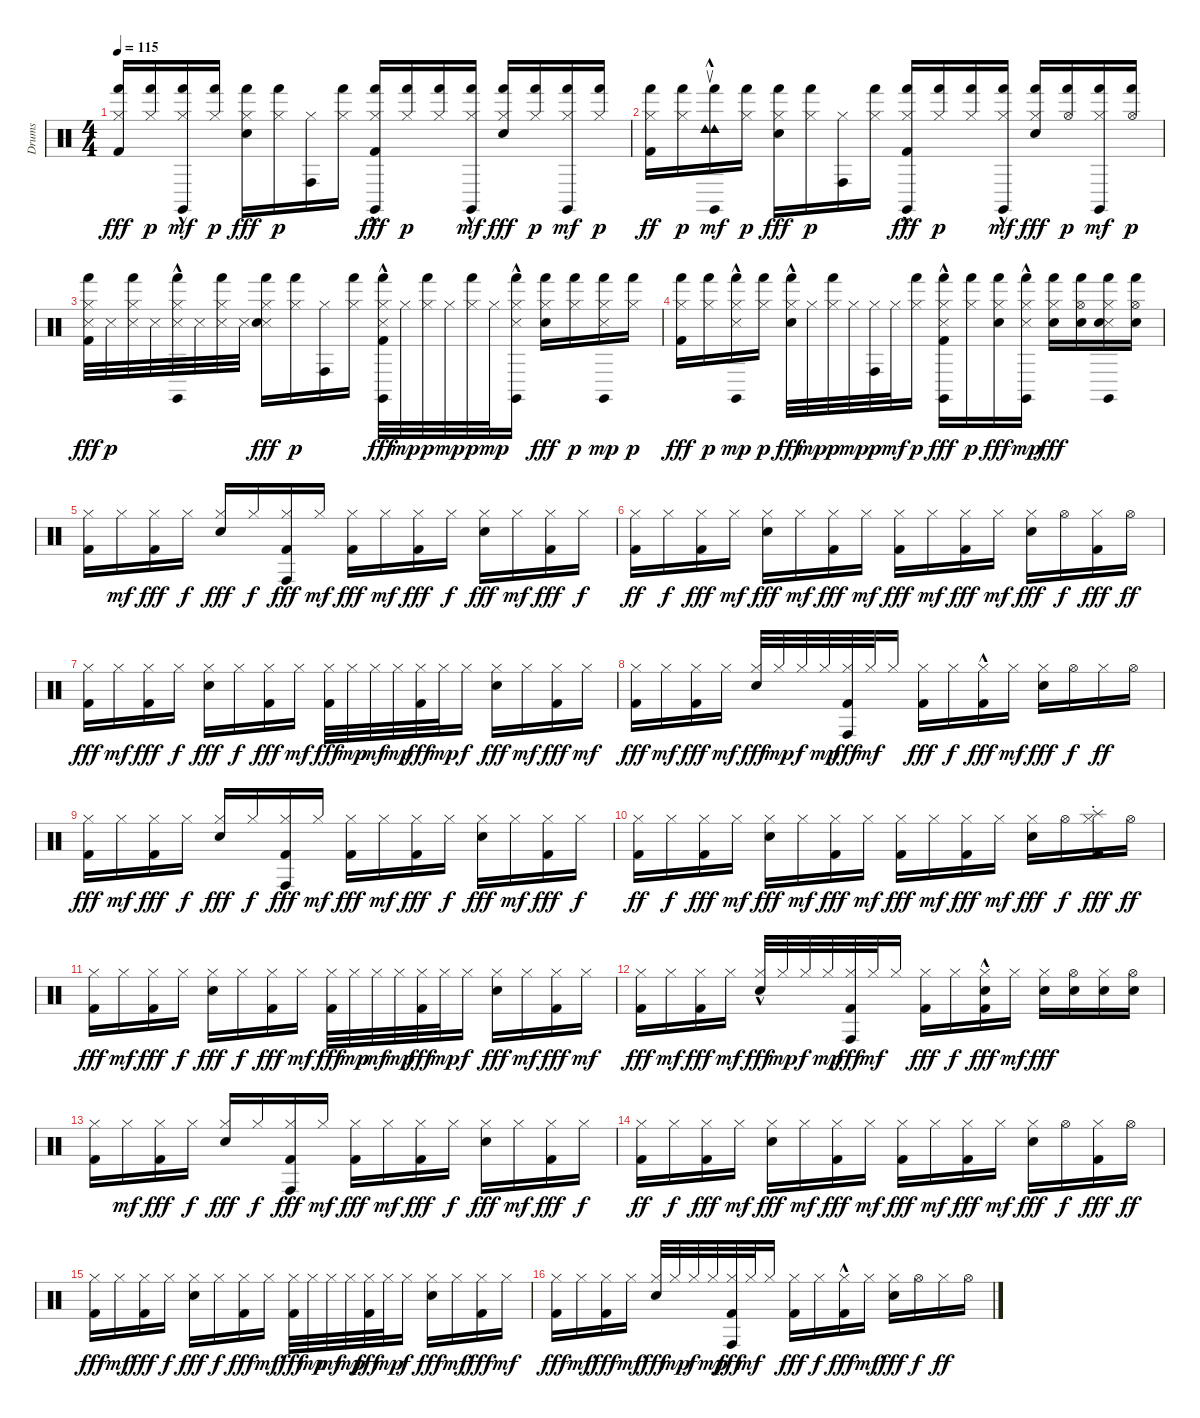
\track ("Drums" "Drums") {instrument percussion}
\staff {score}
\articulation defaults
\ts (4 4)
\tempo 115
\clef neutral
\ks c
("Hi-Hat (closed)" "Hand (hit)" "Kick (hit) 2").16{dy fff} ("Hi-Hat (closed)" "Hand (hit)").16{dy p} ("Hi-Hat (closed)" "Hand (hit)" "Claves (hit)"{hac}).16{dy mf} ("Hi-Hat (closed)" "Hand (hit)").16{dy p} ("Hi-Hat (closed)" "Hand (hit)" "Snare (hit) 2").16{dy fff} ("Hi-Hat (closed)" "Hand (hit)").16{dy p} ("Hi-Hat (closed)" "Conga high (hit)").16 ("Hi-Hat (closed)" "Hand (hit)").16 ("Hi-Hat (closed)" "Hand (hit)" "Claves (hit)"{hac} "Kick (hit) 2").16{dy fff} ("Hi-Hat (closed)" "Hand (hit)").16{dy p} ("Hi-Hat (closed)" "Hand (hit)").16 ("Hi-Hat (closed)" "Hand (hit)" "Claves (hit)"{hac}).16{dy mf} ("Hi-Hat (closed)" "Hand (hit)" "Snare (hit) 2").16{dy fff} ("Hi-Hat (closed)" "Hand (hit)").16{dy p} ("Hi-Hat (closed)" "Hand (hit)" "Claves (hit)").16{dy mf} ("Hi-Hat (closed)" "Hand (hit)").16{dy p} |
("Hi-Hat (closed)" "Hand (hit)" "Kick (hit) 2").16{dy ff} ("Hi-Hat (closed)" "Hand (hit)").16{dy p} ("Tambourine (return)" "Tambourine (return)" "Hand (hit)" "Claves (hit)"{hac}).16{dy mf} ("Hi-Hat (closed)" "Hand (hit)").16{dy p} ("Hi-Hat (closed)" "Hand (hit)" "Snare (hit) 2").16{dy fff} ("Hi-Hat (closed)" "Hand (hit)").16{dy p} ("Hi-Hat (closed)" "Conga high (hit)").16 ("Hi-Hat (closed)" "Hand (hit)").16 ("Hi-Hat (closed)" "Hand (hit)" "Claves (hit)"{hac} "Kick (hit) 2").16{dy fff} ("Hi-Hat (closed)" "Hand (hit)").16{dy p} ("Hi-Hat (closed)" "Hand (hit)").16 ("Hi-Hat (closed)" "Hand (hit)" "Claves (hit)"{hac}).16{dy mf} ("Hi-Hat (closed)" "Hand (hit)" "Snare (hit) 2").16{dy fff} ("Hi-Hat (open)" "Hand (hit)").16{dy p} ("Hi-Hat (closed)" "Hand (hit)" "Claves (hit)").16{dy mf} ("Hi-Hat (open)" "Hand (hit)").16{dy p} |
("Hi-Hat (closed)" "Hand (hit)" "Snare (side stick) 3" "Kick (hit) 2").32{dy fff} "Snare (side stick) 3".32{dy p} ("Hi-Hat (closed)" "Hand (hit)" "Snare (side stick) 3").32 "Snare (side stick) 3".32 ("Hi-Hat (closed)" "Hand (hit)" "Claves (hit)"{hac} "Snare (side stick) 3").32 "Snare (side stick) 3".32 ("Hi-Hat (closed)" "Hand (hit)" "Snare (side stick) 3").32 "Snare (side stick) 3".32 ("Hi-Hat (closed)" "Hand (hit)" "Snare (side stick) 3" "Snare (hit) 2").16{dy fff} ("Hi-Hat (closed)" "Hand (hit)").16{dy p} ("Hi-Hat (closed)" "Conga high (hit)").16 ("Hi-Hat (closed)" "Hand (hit)").16 ("Hi-Hat (closed)" "Hand (hit)" "Claves (hit)"{hac} "Snare (side stick) 3"{hac} "Kick (hit) 2").32{dy fff} "Hi-Hat (closed)".32{dy mp} ("Hi-Hat (closed)" "Hand (hit)").32{dy p} "Hi-Hat (closed)".32{dy mp} ("Hi-Hat (closed)" "Hand (hit)").32{dy p} "Hi-Hat (closed)".32{dy mp} ("Hi-Hat (closed)" "Hand (hit)" "Claves (hit)"{hac} "Snare (side stick) 3"{hac}).16 ("Hi-Hat (closed)" "Hand (hit)" "Snare (hit) 2").16{dy fff} ("Hi-Hat (closed)" "Hand (hit)").16{dy p} ("Hi-Hat (closed)" "Hand (hit)" "Claves (hit)" "Snare (side stick) 3").16{dy mp} ("Hi-Hat (closed)" "Hand (hit)").16{dy p} |
("Hi-Hat (closed)" "Hand (hit)" "Kick (hit) 2").16{dy fff} ("Hi-Hat (closed)" "Hand (hit)").16{dy p} ("Hi-Hat (closed)" "Hand (hit)" "Claves (hit)"{hac} "Snare (side stick) 3"{hac}).16{dy mp} ("Hi-Hat (closed)" "Hand (hit)").16{dy p} ("Hi-Hat (closed)" "Hand (hit)" "Snare (hit) 2"{hac}).32{dy fff} "Hi-Hat (closed)".32{dy mp} ("Hi-Hat (closed)" "Hand (hit)").32{dy p} "Hi-Hat (closed)".32{dy mp} ("Hi-Hat (closed)" "Conga high (hit)").32{dy p} "Hi-Hat (closed)".32{dy mf} ("Hi-Hat (closed)" "Hand (hit)").16{dy p} ("Hi-Hat (closed)" "Hand (hit)" "Claves (hit)"{hac} "Snare (side stick) 3"{hac} "Kick (hit) 2").16{dy fff} ("Hi-Hat (closed)" "Hand (hit)").16{dy p} ("Hi-Hat (closed)" "Hand (hit)" "Snare (hit) 2").16{dy fff} ("Hi-Hat (closed)" "Hand (hit)" "Claves (hit)"{hac} "Snare (side stick) 3"{hac}).16{dy mp} ("Hi-Hat (closed)" "Hand (hit)" "Snare (hit) 2").16{dy fff} ("Hi-Hat (open)" "Hand (hit)" "Snare (hit) 2").16 ("Hi-Hat (closed)" "Hand (hit)" "Claves (hit)" "Snare (side stick) 3" "Snare (hit) 2").16 ("Hi-Hat (open)" "Hand (hit)" "Snare (hit) 2").16 |
("Hi-Hat (closed)" "Kick (hit) 2").16 "Hi-Hat (closed)".16{dy mf} ("Hi-Hat (closed)" "Kick (hit) 2").16{dy fff} "Hi-Hat (closed)".16{dy f} ("Hi-Hat (closed)" "Snare (hit) 2").16{dy fff} "Hi-Hat (closed)".16{dy f} ("Hi-Hat (closed)" "Conga high (hit)" "Kick (hit) 2").16{dy fff} "Hi-Hat (closed)".16{dy mf} ("Hi-Hat (closed)" "Kick (hit) 2").16{dy fff} "Hi-Hat (closed)".16{dy mf} ("Hi-Hat (closed)" "Kick (hit) 2").16{dy fff} "Hi-Hat (closed)".16{dy f} ("Hi-Hat (closed)" "Snare (hit) 2").16{dy fff} "Hi-Hat (closed)".16{dy mf} ("Hi-Hat (closed)" "Kick (hit) 2").16{dy fff} "Hi-Hat (closed)".16{dy f} |
("Hi-Hat (closed)" "Kick (hit) 2").16{dy ff} "Hi-Hat (closed)".16{dy f} ("Hi-Hat (closed)" "Kick (hit) 2").16{dy fff} "Hi-Hat (closed)".16{dy mf} ("Hi-Hat (closed)" "Snare (hit) 2").16{dy fff} "Hi-Hat (closed)".16{dy mf} ("Hi-Hat (closed)" "Kick (hit) 2").16{dy fff} "Hi-Hat (closed)".16{dy mf} ("Hi-Hat (closed)" "Kick (hit) 2").16{dy fff} "Hi-Hat (closed)".16{dy mf} ("Hi-Hat (closed)" "Kick (hit) 2").16{dy fff} "Hi-Hat (closed)".16{dy mf} ("Hi-Hat (closed)" "Snare (hit) 2").16{dy fff} "Hi-Hat (open)".16{dy f} ("Hi-Hat (closed)" "Kick (hit) 2").16{dy fff} "Hi-Hat (open)".16{dy ff} |
("Hi-Hat (closed)" "Kick (hit) 2").16{dy fff} "Hi-Hat (closed)".16{dy mf} ("Hi-Hat (closed)" "Kick (hit) 2").16{dy fff} "Hi-Hat (closed)".16{dy f} ("Hi-Hat (closed)" "Snare (hit) 2").16{dy fff} "Hi-Hat (closed)".16{dy f} ("Hi-Hat (closed)" "Kick (hit) 2").16{dy fff} "Hi-Hat (closed)".16{dy mf} ("Hi-Hat (closed)" "Kick (hit) 2").32{dy fff} "Hi-Hat (closed)".32{dy mp} "Hi-Hat (closed)".32{dy mf} "Hi-Hat (closed)".32{dy mp} ("Hi-Hat (closed)" "Kick (hit) 2").32{dy fff} "Hi-Hat (closed)".32{dy mp} "Hi-Hat (closed)".16{dy f} ("Hi-Hat (closed)" "Snare (hit) 2").16{dy fff} "Hi-Hat (closed)".16{dy mf} ("Hi-Hat (closed)" "Kick (hit) 2").16{dy fff} "Hi-Hat (closed)".16{dy mf} |
("Hi-Hat (closed)" "Kick (hit) 2").16{dy fff} "Hi-Hat (closed)".16{dy mf} ("Hi-Hat (closed)" "Kick (hit) 2").16{dy fff} "Hi-Hat (closed)".16{dy mf} ("Hi-Hat (closed)" "Snare (hit) 2").32{dy fff} "Hi-Hat (closed)".32{dy mp} "Hi-Hat (closed)".32{dy f} "Hi-Hat (closed)".32{dy mp} ("Hi-Hat (closed)" "Conga high (hit)" "Kick (hit) 2").32{dy fff} "Hi-Hat (closed)".32{dy mf} "Hi-Hat (closed)".16 ("Hi-Hat (closed)" "Kick (hit) 2").16{dy fff} "Hi-Hat (closed)".16{dy f} ("Hi-Hat (closed)" "Kick (hit) 2"{hac}).16{dy fff} "Hi-Hat (closed)".16{dy mf} ("Hi-Hat (closed)" "Snare (hit) 2").16{dy fff} "Hi-Hat (open)".16{dy f} "Hi-Hat (closed)".16{dy ff} "Hi-Hat (open)".16 |
("Hi-Hat (closed)" "Kick (hit) 2").16{dy fff} "Hi-Hat (closed)".16{dy mf} ("Hi-Hat (closed)" "Kick (hit) 2").16{dy fff} "Hi-Hat (closed)".16{dy f} ("Hi-Hat (closed)" "Snare (hit) 2").16{dy fff} "Hi-Hat (closed)".16{dy f} ("Hi-Hat (closed)" "Conga high (hit)" "Kick (hit) 2").16{dy fff} "Hi-Hat (closed)".16{dy mf} ("Hi-Hat (closed)" "Kick (hit) 2").16{dy fff} "Hi-Hat (closed)".16{dy mf} ("Hi-Hat (closed)" "Kick (hit) 2").16{dy fff} "Hi-Hat (closed)".16{dy f} ("Hi-Hat (closed)" "Snare (hit) 2").16{dy fff} "Hi-Hat (closed)".16{dy mf} ("Hi-Hat (closed)" "Kick (hit) 2").16{dy fff} "Hi-Hat (closed)".16{dy f} |
("Hi-Hat (closed)" "Kick (hit) 2").16{dy ff} "Hi-Hat (closed)".16{dy f} ("Hi-Hat (closed)" "Kick (hit) 2").16{dy fff} "Hi-Hat (closed)".16{dy mf} ("Hi-Hat (closed)" "Snare (hit) 2").16{dy fff} "Hi-Hat (closed)".16{dy mf} ("Hi-Hat (closed)" "Kick (hit) 2").16{dy fff} "Hi-Hat (closed)".16{dy mf} ("Hi-Hat (closed)" "Kick (hit) 2").16{dy fff} "Hi-Hat (closed)".16{dy mf} ("Hi-Hat (closed)" "Kick (hit) 2").16{dy fff} "Hi-Hat (closed)".16{dy mf} ("Hi-Hat (closed)" "Snare (hit) 2").16{dy fff} "Hi-Hat (open)".16{dy f} ("Hi-Hat (closed)" "Splash (choke)" "Kick (hit) 2").16{dy fff} "Hi-Hat (open)".16{dy ff} |
("Hi-Hat (closed)" "Kick (hit) 2").16{dy fff} "Hi-Hat (closed)".16{dy mf} ("Hi-Hat (closed)" "Kick (hit) 2").16{dy fff} "Hi-Hat (closed)".16{dy f} ("Hi-Hat (closed)" "Snare (hit) 2").16{dy fff} "Hi-Hat (closed)".16{dy f} ("Hi-Hat (closed)" "Kick (hit) 2").16{dy fff} "Hi-Hat (closed)".16{dy mf} ("Hi-Hat (closed)" "Kick (hit) 2").32{dy fff} "Hi-Hat (closed)".32{dy mp} "Hi-Hat (closed)".32{dy mf} "Hi-Hat (closed)".32{dy mp} ("Hi-Hat (closed)" "Kick (hit) 2").32{dy fff} "Hi-Hat (closed)".32{dy mp} "Hi-Hat (closed)".16{dy f} ("Hi-Hat (closed)" "Snare (hit) 2").16{dy fff} "Hi-Hat (closed)".16{dy mf} ("Hi-Hat (closed)" "Kick (hit) 2").16{dy fff} "Hi-Hat (closed)".16{dy mf} |
("Hi-Hat (closed)" "Kick (hit) 2").16{dy fff} "Hi-Hat (closed)".16{dy mf} ("Hi-Hat (closed)" "Kick (hit) 2").16{dy fff} "Hi-Hat (closed)".16{dy mf} ("Hi-Hat (closed)" "Snare (hit) 2"{hac}).32{dy fff} "Hi-Hat (closed)".32{dy mp} "Hi-Hat (closed)".32{dy f} "Hi-Hat (closed)".32{dy mp} ("Hi-Hat (closed)" "Conga high (hit)" "Kick (hit) 2").32{dy fff} "Hi-Hat (closed)".32{dy mf} "Hi-Hat (closed)".16 ("Hi-Hat (closed)" "Kick (hit) 2").16{dy fff} "Hi-Hat (closed)".16{dy f} ("Hi-Hat (closed)" "Snare (hit) 2" "Kick (hit) 2"{hac}).16{dy fff} "Hi-Hat (closed)".16{dy mf} ("Hi-Hat (closed)" "Snare (hit) 2").16{dy fff} ("Hi-Hat (open)" "Snare (hit) 2").16 ("Hi-Hat (closed)" "Snare (hit) 2").16 ("Hi-Hat (open)" "Snare (hit) 2").16 |
("Hi-Hat (closed)" "Kick (hit) 2").16 "Hi-Hat (closed)".16{dy mf} ("Hi-Hat (closed)" "Kick (hit) 2").16{dy fff} "Hi-Hat (closed)".16{dy f} ("Hi-Hat (closed)" "Snare (hit) 2").16{dy fff} "Hi-Hat (closed)".16{dy f} ("Hi-Hat (closed)" "Conga high (hit)" "Kick (hit) 2").16{dy fff} "Hi-Hat (closed)".16{dy mf} ("Hi-Hat (closed)" "Kick (hit) 2").16{dy fff} "Hi-Hat (closed)".16{dy mf} ("Hi-Hat (closed)" "Kick (hit) 2").16{dy fff} "Hi-Hat (closed)".16{dy f} ("Hi-Hat (closed)" "Snare (hit) 2").16{dy fff} "Hi-Hat (closed)".16{dy mf} ("Hi-Hat (closed)" "Kick (hit) 2").16{dy fff} "Hi-Hat (closed)".16{dy f} |
("Hi-Hat (closed)" "Kick (hit) 2").16{dy ff} "Hi-Hat (closed)".16{dy f} ("Hi-Hat (closed)" "Kick (hit) 2").16{dy fff} "Hi-Hat (closed)".16{dy mf} ("Hi-Hat (closed)" "Snare (hit) 2").16{dy fff} "Hi-Hat (closed)".16{dy mf} ("Hi-Hat (closed)" "Kick (hit) 2").16{dy fff} "Hi-Hat (closed)".16{dy mf} ("Hi-Hat (closed)" "Kick (hit) 2").16{dy fff} "Hi-Hat (closed)".16{dy mf} ("Hi-Hat (closed)" "Kick (hit) 2").16{dy fff} "Hi-Hat (closed)".16{dy mf} ("Hi-Hat (closed)" "Snare (hit) 2").16{dy fff} "Hi-Hat (open)".16{dy f} ("Hi-Hat (closed)" "Kick (hit) 2").16{dy fff} "Hi-Hat (open)".16{dy ff} |
("Hi-Hat (closed)" "Kick (hit) 2").16{dy fff} "Hi-Hat (closed)".16{dy mf} ("Hi-Hat (closed)" "Kick (hit) 2").16{dy fff} "Hi-Hat (closed)".16{dy f} ("Hi-Hat (closed)" "Snare (hit) 2").16{dy fff} "Hi-Hat (closed)".16{dy f} ("Hi-Hat (closed)" "Kick (hit) 2").16{dy fff} "Hi-Hat (closed)".16{dy mf} ("Hi-Hat (closed)" "Kick (hit) 2").32{dy fff} "Hi-Hat (closed)".32{dy mp} "Hi-Hat (closed)".32{dy mf} "Hi-Hat (closed)".32{dy mp} ("Hi-Hat (closed)" "Kick (hit) 2").32{dy fff} "Hi-Hat (closed)".32{dy mp} "Hi-Hat (closed)".16{dy f} ("Hi-Hat (closed)" "Snare (hit) 2").16{dy fff} "Hi-Hat (closed)".16{dy mf} ("Hi-Hat (closed)" "Kick (hit) 2").16{dy fff} "Hi-Hat (closed)".16{dy mf} |
("Hi-Hat (closed)" "Kick (hit) 2").16{dy fff} "Hi-Hat (closed)".16{dy mf} ("Hi-Hat (closed)" "Kick (hit) 2").16{dy fff} "Hi-Hat (closed)".16{dy mf} ("Hi-Hat (closed)" "Snare (hit) 2").32{dy fff} "Hi-Hat (closed)".32{dy mp} "Hi-Hat (closed)".32{dy f} "Hi-Hat (closed)".32{dy mp} ("Hi-Hat (closed)" "Conga high (hit)" "Kick (hit) 2").32{dy fff} "Hi-Hat (closed)".32{dy mf} "Hi-Hat (closed)".16 ("Hi-Hat (closed)" "Kick (hit) 2").16{dy fff} "Hi-Hat (closed)".16{dy f} ("Hi-Hat (closed)" "Kick (hit) 2"{hac}).16{dy fff} "Hi-Hat (closed)".16{dy mf} ("Hi-Hat (closed)" "Snare (hit) 2").16{dy fff} "Hi-Hat (open)".16{dy f} "Hi-Hat (closed)".16{dy ff} "Hi-Hat (open)".16
